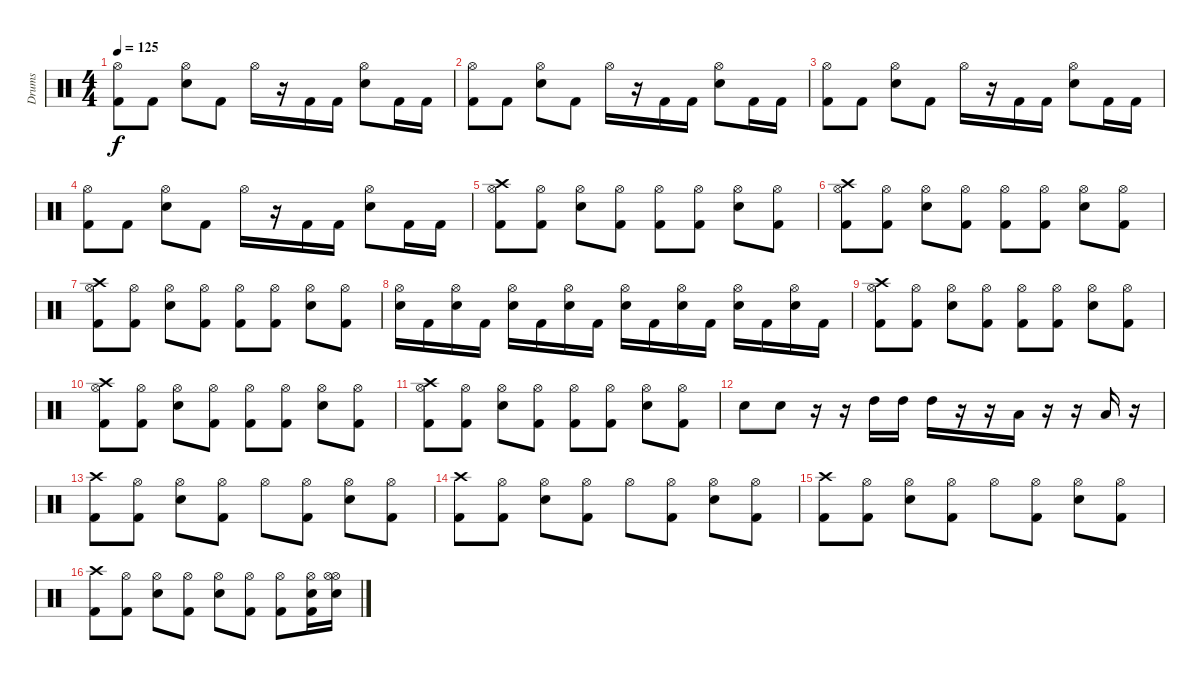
\track ("Drums" "Drums") {instrument percussion}
\staff {score}
\articulation defaults
\ts (4 4)
\tempo 125
\clef neutral
\ks c
("Kick (hit) 2" "Hi-Hat (open)").8{dy f} "Kick (hit) 2".8 ("Electric Snare (hit)" "Hi-Hat (open)").8 "Kick (hit) 2".8 "Hi-Hat (open)".16 r.16 "Kick (hit) 2".16 "Kick (hit) 2".16 ("Electric Snare (hit)" "Hi-Hat (open)").8 "Kick (hit) 2".16 "Kick (hit) 2".16 |
("Kick (hit) 2" "Hi-Hat (open)").8 "Kick (hit) 2".8 ("Electric Snare (hit)" "Hi-Hat (open)").8 "Kick (hit) 2".8 "Hi-Hat (open)".16 r.16 "Kick (hit) 2".16 "Kick (hit) 2".16 ("Electric Snare (hit)" "Hi-Hat (open)").8 "Kick (hit) 2".16 "Kick (hit) 2".16 |
("Kick (hit) 2" "Hi-Hat (open)").8 "Kick (hit) 2".8 ("Electric Snare (hit)" "Hi-Hat (open)").8 "Kick (hit) 2".8 "Hi-Hat (open)".16 r.16 "Kick (hit) 2".16 "Kick (hit) 2".16 ("Electric Snare (hit)" "Hi-Hat (open)").8 "Kick (hit) 2".16 "Kick (hit) 2".16 |
("Kick (hit) 2" "Hi-Hat (open)").8 "Kick (hit) 2".8 ("Electric Snare (hit)" "Hi-Hat (open)").8 "Kick (hit) 2".8 "Hi-Hat (open)".16 r.16 "Kick (hit) 2".16 "Kick (hit) 2".16 ("Electric Snare (hit)" "Hi-Hat (open)").8 "Kick (hit) 2".16 "Kick (hit) 2".16 |
("Kick (hit) 2" "Crash high (hit)" "Hi-Hat (open)").8 ("Kick (hit) 2" "Hi-Hat (open)").8 ("Electric Snare (hit)" "Hi-Hat (open)").8 ("Kick (hit) 2" "Hi-Hat (open)").8 ("Kick (hit) 2" "Hi-Hat (open)").8 ("Kick (hit) 2" "Hi-Hat (open)").8 ("Electric Snare (hit)" "Hi-Hat (open)").8 ("Kick (hit) 2" "Hi-Hat (open)").8 |
("Kick (hit) 2" "Crash high (hit)" "Hi-Hat (open)").8 ("Kick (hit) 2" "Hi-Hat (open)").8 ("Electric Snare (hit)" "Hi-Hat (open)").8 ("Kick (hit) 2" "Hi-Hat (open)").8 ("Kick (hit) 2" "Hi-Hat (open)").8 ("Kick (hit) 2" "Hi-Hat (open)").8 ("Electric Snare (hit)" "Hi-Hat (open)").8 ("Kick (hit) 2" "Hi-Hat (open)").8 |
("Kick (hit) 2" "Crash high (hit)" "Hi-Hat (open)").8 ("Kick (hit) 2" "Hi-Hat (open)").8 ("Electric Snare (hit)" "Hi-Hat (open)").8 ("Kick (hit) 2" "Hi-Hat (open)").8 ("Kick (hit) 2" "Hi-Hat (open)").8 ("Kick (hit) 2" "Hi-Hat (open)").8 ("Electric Snare (hit)" "Hi-Hat (open)").8 ("Kick (hit) 2" "Hi-Hat (open)").8 |
("Electric Snare (hit)" "Hi-Hat (open)").16 "Kick (hit) 2".16 ("Electric Snare (hit)" "Hi-Hat (open)").16 "Kick (hit) 2".16 ("Electric Snare (hit)" "Hi-Hat (open)").16 "Kick (hit) 2".16 ("Electric Snare (hit)" "Hi-Hat (open)").16 "Kick (hit) 2".16 ("Electric Snare (hit)" "Hi-Hat (open)").16 "Kick (hit) 2".16 ("Electric Snare (hit)" "Hi-Hat (open)").16 "Kick (hit) 2".16 ("Electric Snare (hit)" "Hi-Hat (open)").16 "Kick (hit) 2".16 ("Electric Snare (hit)" "Hi-Hat (open)").16 "Kick (hit) 2".16 |
("Kick (hit) 2" "Crash high (hit)" "Hi-Hat (open)").8 ("Kick (hit) 2" "Hi-Hat (open)").8 ("Electric Snare (hit)" "Hi-Hat (open)").8 ("Kick (hit) 2" "Hi-Hat (open)").8 ("Kick (hit) 2" "Hi-Hat (open)").8 ("Kick (hit) 2" "Hi-Hat (open)").8 ("Electric Snare (hit)" "Hi-Hat (open)").8 ("Kick (hit) 2" "Hi-Hat (open)").8 |
("Kick (hit) 2" "Crash high (hit)" "Hi-Hat (open)").8 ("Kick (hit) 2" "Hi-Hat (open)").8 ("Electric Snare (hit)" "Hi-Hat (open)").8 ("Kick (hit) 2" "Hi-Hat (open)").8 ("Kick (hit) 2" "Hi-Hat (open)").8 ("Kick (hit) 2" "Hi-Hat (open)").8 ("Electric Snare (hit)" "Hi-Hat (open)").8 ("Kick (hit) 2" "Hi-Hat (open)").8 |
("Kick (hit) 2" "Crash high (hit)" "Hi-Hat (open)").8 ("Kick (hit) 2" "Hi-Hat (open)").8 ("Electric Snare (hit)" "Hi-Hat (open)").8 ("Kick (hit) 2" "Hi-Hat (open)").8 ("Kick (hit) 2" "Hi-Hat (open)").8 ("Kick (hit) 2" "Hi-Hat (open)").8 ("Electric Snare (hit)" "Hi-Hat (open)").8 ("Kick (hit) 2" "Hi-Hat (open)").8 |
"Snare (hit) 2".8 "Snare (hit) 2".8 r.16 r.16 "High Tom (hit)".16 "High Tom (hit)".16 "High Tom (hit)".16 r.16 r.16 "Low Tom (hit)".16 r.16 r.16 "Low Tom (hit)".16 r.16 |
("Kick (hit) 2" "Crash high (hit)").8 ("Kick (hit) 2" "Hi-Hat (open)").8 ("Electric Snare (hit)" "Hi-Hat (open)").8 ("Kick (hit) 2" "Hi-Hat (open)").8 "Hi-Hat (open)".8 ("Kick (hit) 2" "Hi-Hat (open)").8 ("Electric Snare (hit)" "Hi-Hat (open)").8 ("Kick (hit) 2" "Hi-Hat (open)").8 |
("Kick (hit) 2" "Crash high (hit)").8 ("Kick (hit) 2" "Hi-Hat (open)").8 ("Electric Snare (hit)" "Hi-Hat (open)").8 ("Kick (hit) 2" "Hi-Hat (open)").8 "Hi-Hat (open)".8 ("Kick (hit) 2" "Hi-Hat (open)").8 ("Electric Snare (hit)" "Hi-Hat (open)").8 ("Kick (hit) 2" "Hi-Hat (open)").8 |
("Kick (hit) 2" "Crash high (hit)").8 ("Kick (hit) 2" "Hi-Hat (open)").8 ("Electric Snare (hit)" "Hi-Hat (open)").8 ("Kick (hit) 2" "Hi-Hat (open)").8 "Hi-Hat (open)".8 ("Kick (hit) 2" "Hi-Hat (open)").8 ("Electric Snare (hit)" "Hi-Hat (open)").8 ("Kick (hit) 2" "Hi-Hat (open)").8 |
("Kick (hit) 2" "Crash high (hit)").8 ("Kick (hit) 2" "Hi-Hat (open)").8 ("Electric Snare (hit)" "Hi-Hat (open)").8 ("Kick (hit) 2" "Hi-Hat (open)").8 ("Electric Snare (hit)" "Hi-Hat (open)").8 ("Kick (hit) 2" "Hi-Hat (open)").8 ("Kick (hit) 2" "Hi-Hat (open)").8 ("Kick (hit) 2" "Electric Snare (hit)" "Hi-Hat (open)").16 ("Hi-Hat (open)" "Electric Snare (hit)" "Hi-Hat (open)").16
